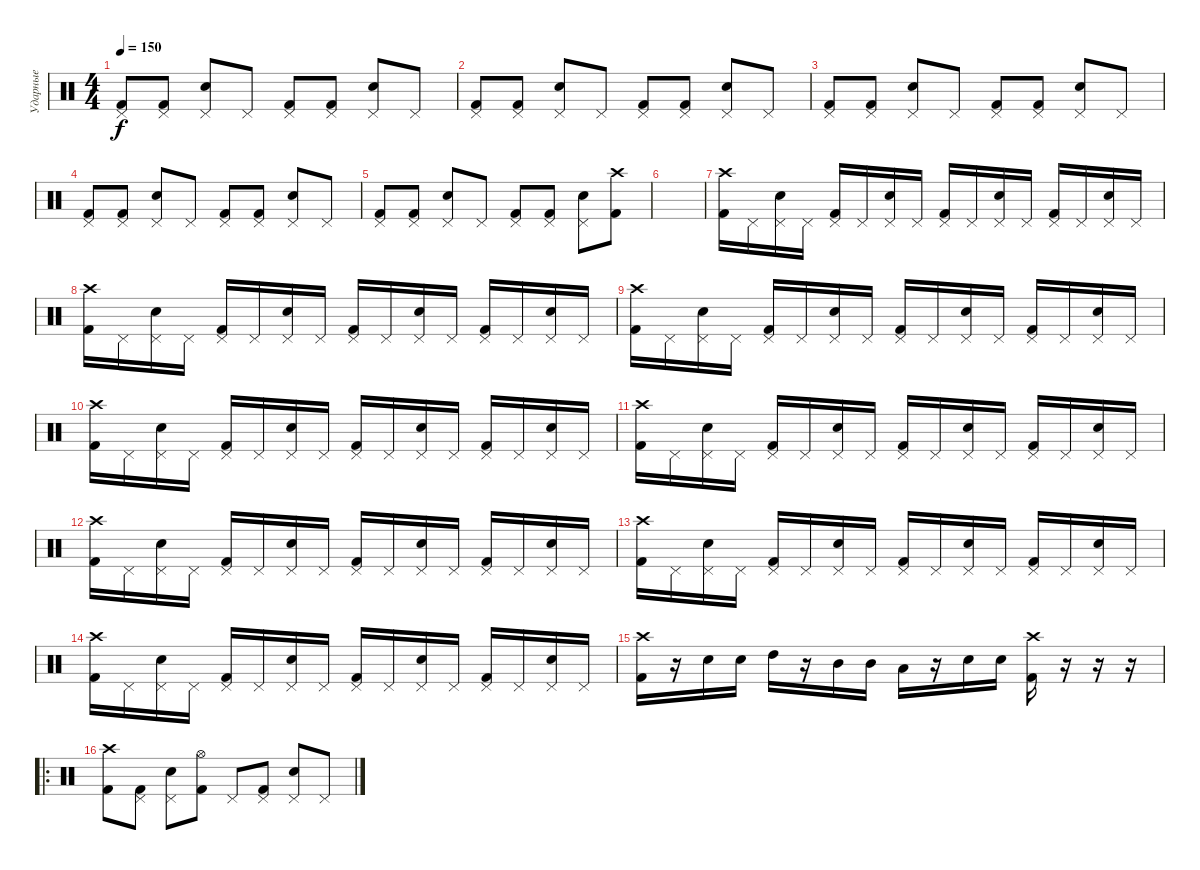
\track ("Ударные" "Ударные") {instrument percussion}
\staff {score}
\articulation defaults
\ts (4 4)
\tempo 150
\clef neutral
\ks c
("Kick (hit) 2" "Pedal Hi-Hat (hit)").8{dy f} ("Kick (hit) 2" "Pedal Hi-Hat (hit)").8 ("Electric Snare (hit)" "Pedal Hi-Hat (hit)").8 "Pedal Hi-Hat (hit)".8 ("Kick (hit) 2" "Pedal Hi-Hat (hit)").8 ("Kick (hit) 2" "Pedal Hi-Hat (hit)").8 ("Electric Snare (hit)" "Pedal Hi-Hat (hit)").8 "Pedal Hi-Hat (hit)".8 |
("Kick (hit) 2" "Pedal Hi-Hat (hit)").8 ("Kick (hit) 2" "Pedal Hi-Hat (hit)").8 ("Electric Snare (hit)" "Pedal Hi-Hat (hit)").8 "Pedal Hi-Hat (hit)".8 ("Kick (hit) 2" "Pedal Hi-Hat (hit)").8 ("Kick (hit) 2" "Pedal Hi-Hat (hit)").8 ("Electric Snare (hit)" "Pedal Hi-Hat (hit)").8 "Pedal Hi-Hat (hit)".8 |
("Kick (hit) 2" "Pedal Hi-Hat (hit)").8 ("Kick (hit) 2" "Pedal Hi-Hat (hit)").8 ("Electric Snare (hit)" "Pedal Hi-Hat (hit)").8 "Pedal Hi-Hat (hit)".8 ("Kick (hit) 2" "Pedal Hi-Hat (hit)").8 ("Kick (hit) 2" "Pedal Hi-Hat (hit)").8 ("Electric Snare (hit)" "Pedal Hi-Hat (hit)").8 "Pedal Hi-Hat (hit)".8 |
("Kick (hit) 2" "Pedal Hi-Hat (hit)").8 ("Kick (hit) 2" "Pedal Hi-Hat (hit)").8 ("Electric Snare (hit)" "Pedal Hi-Hat (hit)").8 "Pedal Hi-Hat (hit)".8 ("Kick (hit) 2" "Pedal Hi-Hat (hit)").8 ("Kick (hit) 2" "Pedal Hi-Hat (hit)").8 ("Electric Snare (hit)" "Pedal Hi-Hat (hit)").8 "Pedal Hi-Hat (hit)".8 |
("Kick (hit) 2" "Pedal Hi-Hat (hit)").8 ("Kick (hit) 2" "Pedal Hi-Hat (hit)").8 ("Electric Snare (hit)" "Pedal Hi-Hat (hit)").8 "Pedal Hi-Hat (hit)".8 ("Kick (hit) 2" "Pedal Hi-Hat (hit)").8 ("Kick (hit) 2" "Pedal Hi-Hat (hit)").8 ("Electric Snare (hit)" "Pedal Hi-Hat (hit)").8 ("Kick (hit) 2" "Crash high (hit)").8 |
|
("Kick (hit) 2" "Crash high (hit)").16 "Pedal Hi-Hat (hit)".16 ("Electric Snare (hit)" "Pedal Hi-Hat (hit)").16 "Pedal Hi-Hat (hit)".16 ("Kick (hit) 2" "Pedal Hi-Hat (hit)").16 "Pedal Hi-Hat (hit)".16 ("Electric Snare (hit)" "Pedal Hi-Hat (hit)").16 "Pedal Hi-Hat (hit)".16 ("Kick (hit) 2" "Pedal Hi-Hat (hit)").16 "Pedal Hi-Hat (hit)".16 ("Electric Snare (hit)" "Pedal Hi-Hat (hit)").16 "Pedal Hi-Hat (hit)".16 ("Kick (hit) 2" "Pedal Hi-Hat (hit)").16 "Pedal Hi-Hat (hit)".16 ("Electric Snare (hit)" "Pedal Hi-Hat (hit)").16 "Pedal Hi-Hat (hit)".16 |
("Kick (hit) 2" "Crash high (hit)").16 "Pedal Hi-Hat (hit)".16 ("Electric Snare (hit)" "Pedal Hi-Hat (hit)").16 "Pedal Hi-Hat (hit)".16 ("Kick (hit) 2" "Pedal Hi-Hat (hit)").16 "Pedal Hi-Hat (hit)".16 ("Electric Snare (hit)" "Pedal Hi-Hat (hit)").16 "Pedal Hi-Hat (hit)".16 ("Kick (hit) 2" "Pedal Hi-Hat (hit)").16 "Pedal Hi-Hat (hit)".16 ("Electric Snare (hit)" "Pedal Hi-Hat (hit)").16 "Pedal Hi-Hat (hit)".16 ("Kick (hit) 2" "Pedal Hi-Hat (hit)").16 "Pedal Hi-Hat (hit)".16 ("Electric Snare (hit)" "Pedal Hi-Hat (hit)").16 "Pedal Hi-Hat (hit)".16 |
("Kick (hit) 2" "Crash high (hit)").16 "Pedal Hi-Hat (hit)".16 ("Electric Snare (hit)" "Pedal Hi-Hat (hit)").16 "Pedal Hi-Hat (hit)".16 ("Kick (hit) 2" "Pedal Hi-Hat (hit)").16 "Pedal Hi-Hat (hit)".16 ("Electric Snare (hit)" "Pedal Hi-Hat (hit)").16 "Pedal Hi-Hat (hit)".16 ("Kick (hit) 2" "Pedal Hi-Hat (hit)").16 "Pedal Hi-Hat (hit)".16 ("Electric Snare (hit)" "Pedal Hi-Hat (hit)").16 "Pedal Hi-Hat (hit)".16 ("Kick (hit) 2" "Pedal Hi-Hat (hit)").16 "Pedal Hi-Hat (hit)".16 ("Electric Snare (hit)" "Pedal Hi-Hat (hit)").16 "Pedal Hi-Hat (hit)".16 |
("Kick (hit) 2" "Crash high (hit)").16 "Pedal Hi-Hat (hit)".16 ("Electric Snare (hit)" "Pedal Hi-Hat (hit)").16 "Pedal Hi-Hat (hit)".16 ("Kick (hit) 2" "Pedal Hi-Hat (hit)").16 "Pedal Hi-Hat (hit)".16 ("Electric Snare (hit)" "Pedal Hi-Hat (hit)").16 "Pedal Hi-Hat (hit)".16 ("Kick (hit) 2" "Pedal Hi-Hat (hit)").16 "Pedal Hi-Hat (hit)".16 ("Electric Snare (hit)" "Pedal Hi-Hat (hit)").16 "Pedal Hi-Hat (hit)".16 ("Kick (hit) 2" "Pedal Hi-Hat (hit)").16 "Pedal Hi-Hat (hit)".16 ("Electric Snare (hit)" "Pedal Hi-Hat (hit)").16 "Pedal Hi-Hat (hit)".16 |
("Kick (hit) 2" "Crash high (hit)").16 "Pedal Hi-Hat (hit)".16 ("Electric Snare (hit)" "Pedal Hi-Hat (hit)").16 "Pedal Hi-Hat (hit)".16 ("Kick (hit) 2" "Pedal Hi-Hat (hit)").16 "Pedal Hi-Hat (hit)".16 ("Electric Snare (hit)" "Pedal Hi-Hat (hit)").16 "Pedal Hi-Hat (hit)".16 ("Kick (hit) 2" "Pedal Hi-Hat (hit)").16 "Pedal Hi-Hat (hit)".16 ("Electric Snare (hit)" "Pedal Hi-Hat (hit)").16 "Pedal Hi-Hat (hit)".16 ("Kick (hit) 2" "Pedal Hi-Hat (hit)").16 "Pedal Hi-Hat (hit)".16 ("Electric Snare (hit)" "Pedal Hi-Hat (hit)").16 "Pedal Hi-Hat (hit)".16 |
("Kick (hit) 2" "Crash high (hit)").16 "Pedal Hi-Hat (hit)".16 ("Electric Snare (hit)" "Pedal Hi-Hat (hit)").16 "Pedal Hi-Hat (hit)".16 ("Kick (hit) 2" "Pedal Hi-Hat (hit)").16 "Pedal Hi-Hat (hit)".16 ("Electric Snare (hit)" "Pedal Hi-Hat (hit)").16 "Pedal Hi-Hat (hit)".16 ("Kick (hit) 2" "Pedal Hi-Hat (hit)").16 "Pedal Hi-Hat (hit)".16 ("Electric Snare (hit)" "Pedal Hi-Hat (hit)").16 "Pedal Hi-Hat (hit)".16 ("Kick (hit) 2" "Pedal Hi-Hat (hit)").16 "Pedal Hi-Hat (hit)".16 ("Electric Snare (hit)" "Pedal Hi-Hat (hit)").16 "Pedal Hi-Hat (hit)".16 |
("Kick (hit) 2" "Crash high (hit)").16 "Pedal Hi-Hat (hit)".16 ("Electric Snare (hit)" "Pedal Hi-Hat (hit)").16 "Pedal Hi-Hat (hit)".16 ("Kick (hit) 2" "Pedal Hi-Hat (hit)").16 "Pedal Hi-Hat (hit)".16 ("Electric Snare (hit)" "Pedal Hi-Hat (hit)").16 "Pedal Hi-Hat (hit)".16 ("Kick (hit) 2" "Pedal Hi-Hat (hit)").16 "Pedal Hi-Hat (hit)".16 ("Electric Snare (hit)" "Pedal Hi-Hat (hit)").16 "Pedal Hi-Hat (hit)".16 ("Kick (hit) 2" "Pedal Hi-Hat (hit)").16 "Pedal Hi-Hat (hit)".16 ("Electric Snare (hit)" "Pedal Hi-Hat (hit)").16 "Pedal Hi-Hat (hit)".16 |
("Kick (hit) 2" "Crash high (hit)").16 "Pedal Hi-Hat (hit)".16 ("Electric Snare (hit)" "Pedal Hi-Hat (hit)").16 "Pedal Hi-Hat (hit)".16 ("Kick (hit) 2" "Pedal Hi-Hat (hit)").16 "Pedal Hi-Hat (hit)".16 ("Electric Snare (hit)" "Pedal Hi-Hat (hit)").16 "Pedal Hi-Hat (hit)".16 ("Kick (hit) 2" "Pedal Hi-Hat (hit)").16 "Pedal Hi-Hat (hit)".16 ("Electric Snare (hit)" "Pedal Hi-Hat (hit)").16 "Pedal Hi-Hat (hit)".16 ("Kick (hit) 2" "Pedal Hi-Hat (hit)").16 "Pedal Hi-Hat (hit)".16 ("Electric Snare (hit)" "Pedal Hi-Hat (hit)").16 "Pedal Hi-Hat (hit)".16 |
("Kick (hit) 2" "Crash high (hit)").16 r.16 "Electric Snare (hit)".16 "Electric Snare (hit)".16 "High Tom (hit)".16 r.16 "Mid Tom (hit)".16 "Mid Tom (hit)".16 "Low Tom (hit)".16 r.16 "Electric Snare (hit)".16 "Electric Snare (hit)".16 ("Kick (hit) 2" "Crash high (hit)").16 r.16 r.16 r.16 |
\ro
("Kick (hit) 2" "Crash high (hit)").8 ("Kick (hit) 2" "Pedal Hi-Hat (hit)").8 ("Electric Snare (hit)" "Pedal Hi-Hat (hit)").8 ("Kick (hit) 2" "Hi-Hat (open)").8 "Pedal Hi-Hat (hit)".8 ("Kick (hit) 2" "Pedal Hi-Hat (hit)").8 ("Electric Snare (hit)" "Pedal Hi-Hat (hit)").8 "Pedal Hi-Hat (hit)".8
